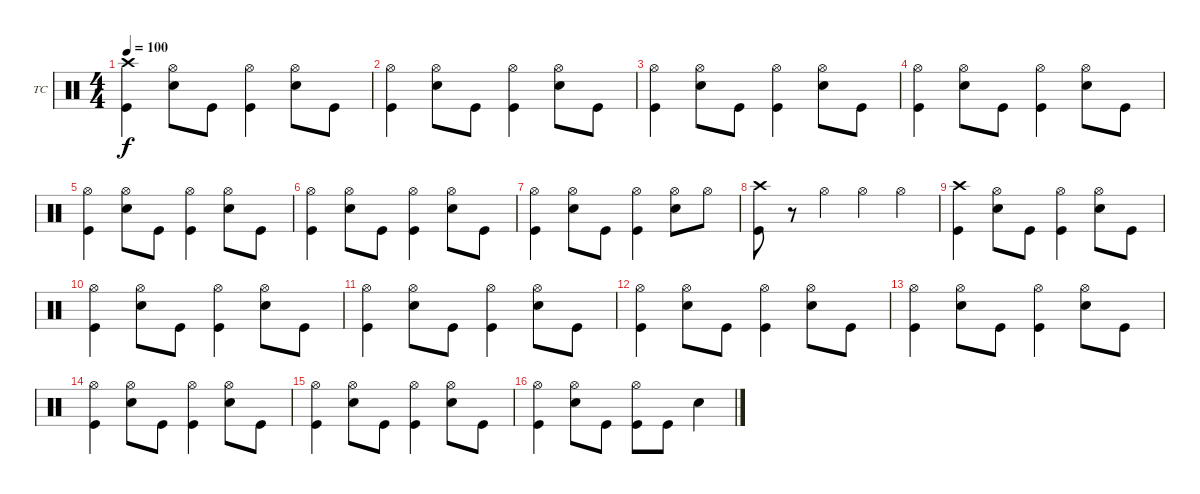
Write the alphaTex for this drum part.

\defaultSystemsLayout 4
\bracketExtendMode groupsimilarinstruments
\firstSystemTrackNameOrientation horizontal
\otherSystemsTrackNameOrientation horizontal
\track ("Drums - Tre Cool" "TC") {instrument percussion}
\staff {score}
\articulation defaults
\ts (4 4)
\tempo 100
\clef neutral
\ks c
("Crash high (hit)" "Kick (hit)").4{dy f} ("Hi-Hat (open)" "Snare (hit) 2").8 "Kick (hit)".8 ("Hi-Hat (open)" "Kick (hit)").4 ("Hi-Hat (open)" "Snare (hit) 2").8 "Kick (hit)".8 |
("Hi-Hat (open)" "Kick (hit)").4 ("Hi-Hat (open)" "Snare (hit) 2").8 "Kick (hit)".8 ("Hi-Hat (open)" "Kick (hit)").4 ("Hi-Hat (open)" "Snare (hit) 2").8 "Kick (hit)".8 |
("Hi-Hat (open)" "Kick (hit)").4 ("Hi-Hat (open)" "Snare (hit) 2").8 "Kick (hit)".8 ("Hi-Hat (open)" "Kick (hit)").4 ("Hi-Hat (open)" "Snare (hit) 2").8 "Kick (hit)".8 |
("Hi-Hat (open)" "Kick (hit)").4 ("Hi-Hat (open)" "Snare (hit) 2").8 "Kick (hit)".8 ("Hi-Hat (open)" "Kick (hit)").4 ("Hi-Hat (open)" "Snare (hit) 2").8 "Kick (hit)".8 |
("Hi-Hat (open)" "Kick (hit)").4 ("Hi-Hat (open)" "Snare (hit) 2").8 "Kick (hit)".8 ("Hi-Hat (open)" "Kick (hit)").4 ("Hi-Hat (open)" "Snare (hit) 2").8 "Kick (hit)".8 |
("Hi-Hat (open)" "Kick (hit)").4 ("Hi-Hat (open)" "Snare (hit) 2").8 "Kick (hit)".8 ("Hi-Hat (open)" "Kick (hit)").4 ("Hi-Hat (open)" "Snare (hit) 2").8 "Kick (hit)".8 |
("Hi-Hat (open)" "Kick (hit)").4 ("Hi-Hat (open)" "Snare (hit) 2").8 "Kick (hit)".8 ("Hi-Hat (open)" "Kick (hit)").4 ("Hi-Hat (open)" "Snare (hit) 2").8 "Hi-Hat (open)".8 |
("Crash high (hit)" "Kick (hit)").8 r.8 "Hi-Hat (open)".4 "Hi-Hat (open)".4 "Hi-Hat (open)".4 |
("Crash high (hit)" "Kick (hit)").4 ("Hi-Hat (open)" "Snare (hit) 2").8 "Kick (hit)".8 ("Hi-Hat (open)" "Kick (hit)").4 ("Hi-Hat (open)" "Snare (hit) 2").8 "Kick (hit)".8 |
("Hi-Hat (open)" "Kick (hit)").4 ("Hi-Hat (open)" "Snare (hit) 2").8 "Kick (hit)".8 ("Hi-Hat (open)" "Kick (hit)").4 ("Hi-Hat (open)" "Snare (hit) 2").8 "Kick (hit)".8 |
("Hi-Hat (open)" "Kick (hit)").4 ("Hi-Hat (open)" "Snare (hit) 2").8 "Kick (hit)".8 ("Hi-Hat (open)" "Kick (hit)").4 ("Hi-Hat (open)" "Snare (hit) 2").8 "Kick (hit)".8 |
("Hi-Hat (open)" "Kick (hit)").4 ("Hi-Hat (open)" "Snare (hit) 2").8 "Kick (hit)".8 ("Hi-Hat (open)" "Kick (hit)").4 ("Hi-Hat (open)" "Snare (hit) 2").8 "Kick (hit)".8 |
("Hi-Hat (open)" "Kick (hit)").4 ("Hi-Hat (open)" "Snare (hit) 2").8 "Kick (hit)".8 ("Hi-Hat (open)" "Kick (hit)").4 ("Hi-Hat (open)" "Snare (hit) 2").8 "Kick (hit)".8 |
("Hi-Hat (open)" "Kick (hit)").4 ("Hi-Hat (open)" "Snare (hit) 2").8 "Kick (hit)".8 ("Hi-Hat (open)" "Kick (hit)").4 ("Hi-Hat (open)" "Snare (hit) 2").8 "Kick (hit)".8 |
("Hi-Hat (open)" "Kick (hit)").4 ("Hi-Hat (open)" "Snare (hit) 2").8 "Kick (hit)".8 ("Hi-Hat (open)" "Kick (hit)").4 ("Hi-Hat (open)" "Snare (hit) 2").8 "Kick (hit)".8 |
("Hi-Hat (open)" "Kick (hit)").4 ("Hi-Hat (open)" "Snare (hit) 2").8 "Kick (hit)".8 ("Hi-Hat (open)" "Kick (hit)").8 "Kick (hit)".8 "Snare (hit) 2".4
